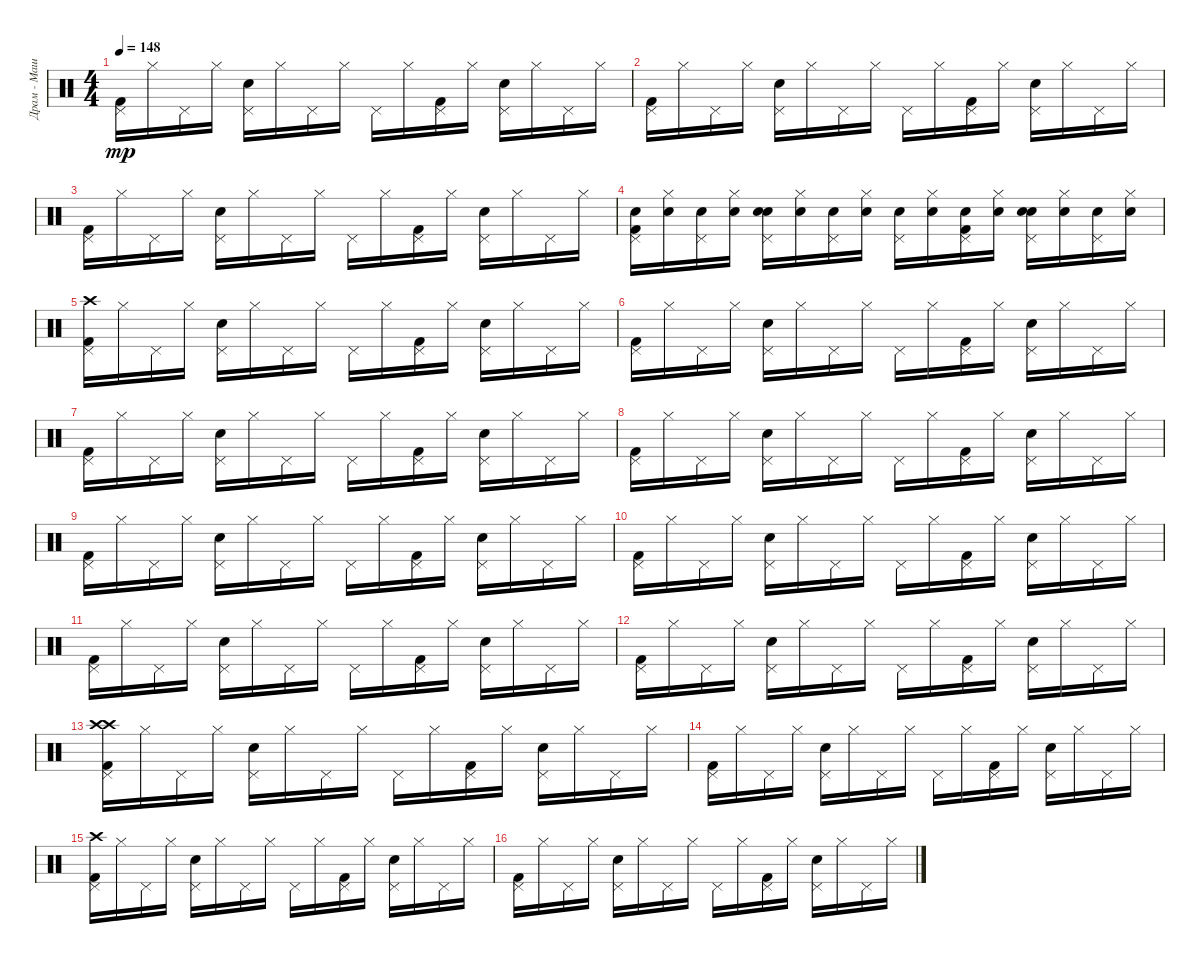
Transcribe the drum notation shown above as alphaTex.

\track ("Драм - Машина 2" "Драм - Маш") {instrument percussion}
\staff {score}
\articulation defaults
\ts (4 4)
\tempo 148
\clef neutral
\ks c
("Kick (hit) 2" "Pedal Hi-Hat (hit)").16{dy mp} "Hi-Hat (closed)".16 "Pedal Hi-Hat (hit)".16 "Hi-Hat (closed)".16 ("Snare (hit) 2" "Pedal Hi-Hat (hit)").16 "Hi-Hat (closed)".16 "Pedal Hi-Hat (hit)".16 "Hi-Hat (closed)".16 "Pedal Hi-Hat (hit)".16 "Hi-Hat (closed)".16 ("Kick (hit) 2" "Pedal Hi-Hat (hit)").16 "Hi-Hat (closed)".16 ("Snare (hit) 2" "Pedal Hi-Hat (hit)").16 "Hi-Hat (closed)".16 "Pedal Hi-Hat (hit)".16 "Hi-Hat (closed)".16 |
("Kick (hit) 2" "Pedal Hi-Hat (hit)").16 "Hi-Hat (closed)".16 "Pedal Hi-Hat (hit)".16 "Hi-Hat (closed)".16 ("Snare (hit) 2" "Pedal Hi-Hat (hit)").16 "Hi-Hat (closed)".16 "Pedal Hi-Hat (hit)".16 "Hi-Hat (closed)".16 "Pedal Hi-Hat (hit)".16 "Hi-Hat (closed)".16 ("Kick (hit) 2" "Pedal Hi-Hat (hit)").16 "Hi-Hat (closed)".16 ("Snare (hit) 2" "Pedal Hi-Hat (hit)").16 "Hi-Hat (closed)".16 "Pedal Hi-Hat (hit)".16 "Hi-Hat (closed)".16 |
("Kick (hit) 2" "Pedal Hi-Hat (hit)").16 "Hi-Hat (closed)".16 "Pedal Hi-Hat (hit)".16 "Hi-Hat (closed)".16 ("Snare (hit) 2" "Pedal Hi-Hat (hit)").16 "Hi-Hat (closed)".16 "Pedal Hi-Hat (hit)".16 "Hi-Hat (closed)".16 "Pedal Hi-Hat (hit)".16 "Hi-Hat (closed)".16 ("Kick (hit) 2" "Pedal Hi-Hat (hit)").16 "Hi-Hat (closed)".16 ("Snare (hit) 2" "Pedal Hi-Hat (hit)").16 "Hi-Hat (closed)".16 "Pedal Hi-Hat (hit)".16 "Hi-Hat (closed)".16 |
("Kick (hit) 2" "Snare (hit) 2" "Pedal Hi-Hat (hit)").16 ("Snare (hit) 2" "Hi-Hat (closed)").16 ("Snare (hit) 2" "Pedal Hi-Hat (hit)").16 ("Snare (hit) 2" "Hi-Hat (closed)").16 ("Snare (hit) 2" "Snare (hit) 2" "Pedal Hi-Hat (hit)").16 ("Snare (hit) 2" "Hi-Hat (closed)").16 ("Snare (hit) 2" "Pedal Hi-Hat (hit)").16 ("Snare (hit) 2" "Hi-Hat (closed)").16 ("Snare (hit) 2" "Pedal Hi-Hat (hit)").16 ("Snare (hit) 2" "Hi-Hat (closed)").16 ("Kick (hit) 2" "Snare (hit) 2" "Pedal Hi-Hat (hit)").16 ("Snare (hit) 2" "Hi-Hat (closed)").16 ("Snare (hit) 2" "Snare (hit) 2" "Pedal Hi-Hat (hit)").16 ("Snare (hit) 2" "Hi-Hat (closed)").16 ("Snare (hit) 2" "Pedal Hi-Hat (hit)").16 ("Snare (hit) 2" "Hi-Hat (closed)").16 |
("Kick (hit) 2" "Crash high (hit)" "Pedal Hi-Hat (hit)").16 "Hi-Hat (closed)".16 "Pedal Hi-Hat (hit)".16 "Hi-Hat (closed)".16 ("Snare (hit) 2" "Pedal Hi-Hat (hit)").16 "Hi-Hat (closed)".16 "Pedal Hi-Hat (hit)".16 "Hi-Hat (closed)".16 "Pedal Hi-Hat (hit)".16 "Hi-Hat (closed)".16 ("Kick (hit) 2" "Pedal Hi-Hat (hit)").16 "Hi-Hat (closed)".16 ("Snare (hit) 2" "Pedal Hi-Hat (hit)").16 "Hi-Hat (closed)".16 "Pedal Hi-Hat (hit)".16 "Hi-Hat (closed)".16 |
("Kick (hit) 2" "Pedal Hi-Hat (hit)").16 "Hi-Hat (closed)".16 "Pedal Hi-Hat (hit)".16 "Hi-Hat (closed)".16 ("Snare (hit) 2" "Pedal Hi-Hat (hit)").16 "Hi-Hat (closed)".16 "Pedal Hi-Hat (hit)".16 "Hi-Hat (closed)".16 "Pedal Hi-Hat (hit)".16 "Hi-Hat (closed)".16 ("Kick (hit) 2" "Pedal Hi-Hat (hit)").16 "Hi-Hat (closed)".16 ("Snare (hit) 2" "Pedal Hi-Hat (hit)").16 "Hi-Hat (closed)".16 "Pedal Hi-Hat (hit)".16 "Hi-Hat (closed)".16 |
("Kick (hit) 2" "Pedal Hi-Hat (hit)").16 "Hi-Hat (closed)".16 "Pedal Hi-Hat (hit)".16 "Hi-Hat (closed)".16 ("Snare (hit) 2" "Pedal Hi-Hat (hit)").16 "Hi-Hat (closed)".16 "Pedal Hi-Hat (hit)".16 "Hi-Hat (closed)".16 "Pedal Hi-Hat (hit)".16 "Hi-Hat (closed)".16 ("Kick (hit) 2" "Pedal Hi-Hat (hit)").16 "Hi-Hat (closed)".16 ("Snare (hit) 2" "Pedal Hi-Hat (hit)").16 "Hi-Hat (closed)".16 "Pedal Hi-Hat (hit)".16 "Hi-Hat (closed)".16 |
("Kick (hit) 2" "Pedal Hi-Hat (hit)").16 "Hi-Hat (closed)".16 "Pedal Hi-Hat (hit)".16 "Hi-Hat (closed)".16 ("Snare (hit) 2" "Pedal Hi-Hat (hit)").16 "Hi-Hat (closed)".16 "Pedal Hi-Hat (hit)".16 "Hi-Hat (closed)".16 "Pedal Hi-Hat (hit)".16 "Hi-Hat (closed)".16 ("Kick (hit) 2" "Pedal Hi-Hat (hit)").16 "Hi-Hat (closed)".16 ("Snare (hit) 2" "Pedal Hi-Hat (hit)").16 "Hi-Hat (closed)".16 "Pedal Hi-Hat (hit)".16 "Hi-Hat (closed)".16 |
("Kick (hit) 2" "Pedal Hi-Hat (hit)").16 "Hi-Hat (closed)".16 "Pedal Hi-Hat (hit)".16 "Hi-Hat (closed)".16 ("Snare (hit) 2" "Pedal Hi-Hat (hit)").16 "Hi-Hat (closed)".16 "Pedal Hi-Hat (hit)".16 "Hi-Hat (closed)".16 "Pedal Hi-Hat (hit)".16 "Hi-Hat (closed)".16 ("Kick (hit) 2" "Pedal Hi-Hat (hit)").16 "Hi-Hat (closed)".16 ("Snare (hit) 2" "Pedal Hi-Hat (hit)").16 "Hi-Hat (closed)".16 "Pedal Hi-Hat (hit)".16 "Hi-Hat (closed)".16 |
("Kick (hit) 2" "Pedal Hi-Hat (hit)").16 "Hi-Hat (closed)".16 "Pedal Hi-Hat (hit)".16 "Hi-Hat (closed)".16 ("Snare (hit) 2" "Pedal Hi-Hat (hit)").16 "Hi-Hat (closed)".16 "Pedal Hi-Hat (hit)".16 "Hi-Hat (closed)".16 "Pedal Hi-Hat (hit)".16 "Hi-Hat (closed)".16 ("Kick (hit) 2" "Pedal Hi-Hat (hit)").16 "Hi-Hat (closed)".16 ("Snare (hit) 2" "Pedal Hi-Hat (hit)").16 "Hi-Hat (closed)".16 "Pedal Hi-Hat (hit)".16 "Hi-Hat (closed)".16 |
("Kick (hit) 2" "Pedal Hi-Hat (hit)").16 "Hi-Hat (closed)".16 "Pedal Hi-Hat (hit)".16 "Hi-Hat (closed)".16 ("Snare (hit) 2" "Pedal Hi-Hat (hit)").16 "Hi-Hat (closed)".16 "Pedal Hi-Hat (hit)".16 "Hi-Hat (closed)".16 "Pedal Hi-Hat (hit)".16 "Hi-Hat (closed)".16 ("Kick (hit) 2" "Pedal Hi-Hat (hit)").16 "Hi-Hat (closed)".16 ("Snare (hit) 2" "Pedal Hi-Hat (hit)").16 "Hi-Hat (closed)".16 "Pedal Hi-Hat (hit)".16 "Hi-Hat (closed)".16 |
("Kick (hit) 2" "Pedal Hi-Hat (hit)").16 "Hi-Hat (closed)".16 "Pedal Hi-Hat (hit)".16 "Hi-Hat (closed)".16 ("Snare (hit) 2" "Pedal Hi-Hat (hit)").16 "Hi-Hat (closed)".16 "Pedal Hi-Hat (hit)".16 "Hi-Hat (closed)".16 "Pedal Hi-Hat (hit)".16 "Hi-Hat (closed)".16 ("Kick (hit) 2" "Pedal Hi-Hat (hit)").16 "Hi-Hat (closed)".16 ("Snare (hit) 2" "Pedal Hi-Hat (hit)").16 "Hi-Hat (closed)".16 "Pedal Hi-Hat (hit)".16 "Hi-Hat (closed)".16 |
("Crash high (hit)" "Kick (hit) 2" "Crash high (hit)" "Pedal Hi-Hat (hit)").16 "Hi-Hat (closed)".16 "Pedal Hi-Hat (hit)".16 "Hi-Hat (closed)".16 ("Snare (hit) 2" "Pedal Hi-Hat (hit)").16 "Hi-Hat (closed)".16 "Pedal Hi-Hat (hit)".16 "Hi-Hat (closed)".16 "Pedal Hi-Hat (hit)".16 "Hi-Hat (closed)".16 ("Kick (hit) 2" "Pedal Hi-Hat (hit)").16 "Hi-Hat (closed)".16 ("Snare (hit) 2" "Pedal Hi-Hat (hit)").16 "Hi-Hat (closed)".16 "Pedal Hi-Hat (hit)".16 "Hi-Hat (closed)".16 |
("Kick (hit) 2" "Pedal Hi-Hat (hit)").16 "Hi-Hat (closed)".16 "Pedal Hi-Hat (hit)".16 "Hi-Hat (closed)".16 ("Snare (hit) 2" "Pedal Hi-Hat (hit)").16 "Hi-Hat (closed)".16 "Pedal Hi-Hat (hit)".16 "Hi-Hat (closed)".16 "Pedal Hi-Hat (hit)".16 "Hi-Hat (closed)".16 ("Kick (hit) 2" "Pedal Hi-Hat (hit)").16 "Hi-Hat (closed)".16 ("Snare (hit) 2" "Pedal Hi-Hat (hit)").16 "Hi-Hat (closed)".16 "Pedal Hi-Hat (hit)".16 "Hi-Hat (closed)".16 |
("Kick (hit) 2" "Crash high (hit)" "Pedal Hi-Hat (hit)").16 "Hi-Hat (closed)".16 "Pedal Hi-Hat (hit)".16 "Hi-Hat (closed)".16 ("Snare (hit) 2" "Pedal Hi-Hat (hit)").16 "Hi-Hat (closed)".16 "Pedal Hi-Hat (hit)".16 "Hi-Hat (closed)".16 "Pedal Hi-Hat (hit)".16 "Hi-Hat (closed)".16 ("Kick (hit) 2" "Pedal Hi-Hat (hit)").16 "Hi-Hat (closed)".16 ("Snare (hit) 2" "Pedal Hi-Hat (hit)").16 "Hi-Hat (closed)".16 "Pedal Hi-Hat (hit)".16 "Hi-Hat (closed)".16 |
("Kick (hit) 2" "Pedal Hi-Hat (hit)").16 "Hi-Hat (closed)".16 "Pedal Hi-Hat (hit)".16 "Hi-Hat (closed)".16 ("Snare (hit) 2" "Pedal Hi-Hat (hit)").16 "Hi-Hat (closed)".16 "Pedal Hi-Hat (hit)".16 "Hi-Hat (closed)".16 "Pedal Hi-Hat (hit)".16 "Hi-Hat (closed)".16 ("Kick (hit) 2" "Pedal Hi-Hat (hit)").16 "Hi-Hat (closed)".16 ("Snare (hit) 2" "Pedal Hi-Hat (hit)").16 "Hi-Hat (closed)".16 "Pedal Hi-Hat (hit)".16 "Hi-Hat (closed)".16
